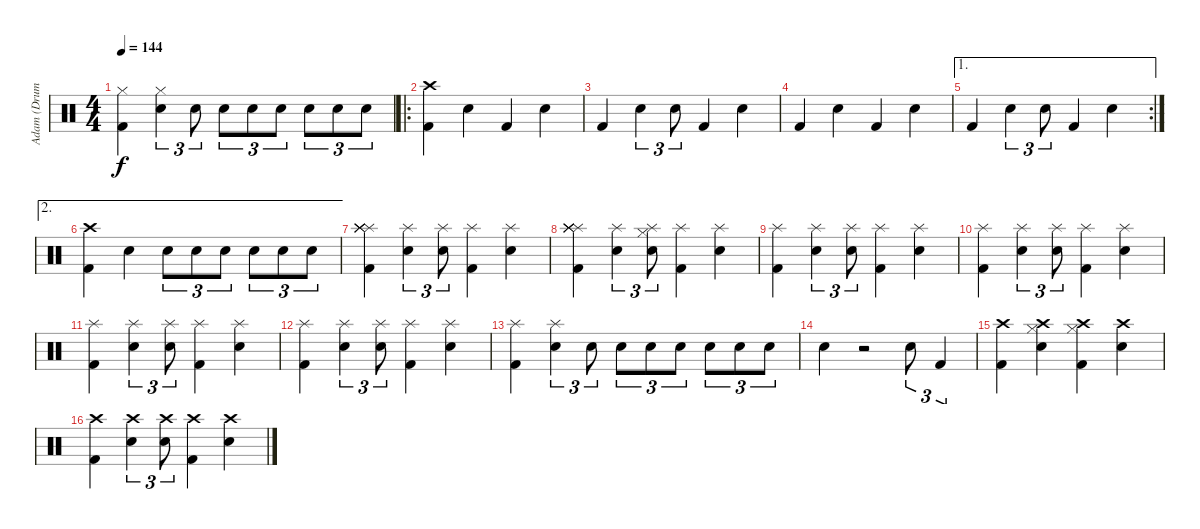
\track ("Adam (Drums)" "Adam (Drum") {instrument percussion}
\staff {score}
\articulation defaults
\ts (4 4)
\tempo 144
\clef neutral
\ks c
("Kick (hit) 2" "Hi-Hat (closed)").4{dy f} ("Electric Snare (hit)" "Hi-Hat (closed)").4{tu (3 2)} "Electric Snare (hit)".8{tu (3 2)} "Electric Snare (hit)".8{tu (3 2)} "Electric Snare (hit)".8{tu (3 2)} "Electric Snare (hit)".8{tu (3 2)} "Electric Snare (hit)".8{tu (3 2)} "Electric Snare (hit)".8{tu (3 2)} "Electric Snare (hit)".8{tu (3 2)} |
\ro
("Crash high (hit)" "Kick (hit) 2").4 "Electric Snare (hit)".4 "Kick (hit) 2".4 "Electric Snare (hit)".4 |
"Kick (hit) 2".4 "Electric Snare (hit)".4{tu (3 2)} "Electric Snare (hit)".8{tu (3 2)} "Kick (hit) 2".4 "Electric Snare (hit)".4 |
"Kick (hit) 2".4 "Electric Snare (hit)".4 "Kick (hit) 2".4 "Electric Snare (hit)".4 |
\ae 1
\rc 2 "Kick (hit) 2".4 "Electric Snare (hit)".4{tu (3 2)} "Electric Snare (hit)".8{tu (3 2)} "Kick (hit) 2".4 "Electric Snare (hit)".4
|
\ae 2
("Crash high (hit)" "Kick (hit) 2").4 "Electric Snare (hit)".4 "Electric Snare (hit)".8{tu (3 2)} "Electric Snare (hit)".8{tu (3 2)} "Electric Snare (hit)".8{tu (3 2)} "Electric Snare (hit)".8{tu (3 2)} "Electric Snare (hit)".8{tu (3 2)} "Electric Snare (hit)".8{tu (3 2)} |
("Splash (hit)" "Splash (hit)" "Kick (hit) 2" "Splash (hit)" "Splash (hit)" "Splash (hit)").4 ("Electric Snare (hit)" "Splash (hit)").4{tu (3 2)} ("Electric Snare (hit)" "Splash (hit)").8{tu (3 2)} ("Kick (hit) 2" "Splash (hit)").4 ("Electric Snare (hit)" "Splash (hit)").4 |
("Splash (hit)" "Splash (hit)" "Kick (hit) 2" "Splash (hit)" "Splash (hit)" "Splash (hit)").4 ("Splash (hit)" "Electric Snare (hit)").4{tu (3 2)} ("Hi-Hat (closed)" "Splash (hit)" "Electric Snare (hit)").8{tu (3 2)} ("Splash (hit)" "Kick (hit) 2").4 ("Splash (hit)" "Electric Snare (hit)").4 |
("Splash (hit)" "Kick (hit) 2").4 ("Splash (hit)" "Electric Snare (hit)").4{tu (3 2)} ("Splash (hit)" "Electric Snare (hit)").8{tu (3 2)} ("Splash (hit)" "Kick (hit) 2").4 ("Splash (hit)" "Electric Snare (hit)").4 |
("Splash (hit)" "Kick (hit) 2").4 ("Splash (hit)" "Electric Snare (hit)").4{tu (3 2)} ("Splash (hit)" "Electric Snare (hit)").8{tu (3 2)} ("Splash (hit)" "Kick (hit) 2").4 ("Splash (hit)" "Electric Snare (hit)").4 |
("Splash (hit)" "Kick (hit) 2").4 ("Splash (hit)" "Electric Snare (hit)").4{tu (3 2)} ("Splash (hit)" "Electric Snare (hit)").8{tu (3 2)} ("Splash (hit)" "Kick (hit) 2").4 ("Splash (hit)" "Electric Snare (hit)").4 |
("Splash (hit)" "Kick (hit) 2").4 ("Splash (hit)" "Electric Snare (hit)").4{tu (3 2)} ("Splash (hit)" "Electric Snare (hit)").8{tu (3 2)} ("Splash (hit)" "Kick (hit) 2").4 ("Splash (hit)" "Electric Snare (hit)").4 |
("Splash (hit)" "Kick (hit) 2").4 ("Splash (hit)" "Electric Snare (hit)").4{tu (3 2)} "Electric Snare (hit)".8{tu (3 2)} "Electric Snare (hit)".8{tu (3 2)} "Electric Snare (hit)".8{tu (3 2)} "Electric Snare (hit)".8{tu (3 2)} "Electric Snare (hit)".8{tu (3 2)} "Electric Snare (hit)".8{tu (3 2)} "Electric Snare (hit)".8{tu (3 2)} |
"Electric Snare (hit)".4 r.2 "Electric Snare (hit)".8{tu (3 2)} "Kick (hit) 2".4{tu (3 2)} |
("Crash high (hit)" "Kick (hit) 2").4 ("Hi-Hat (closed)" "Crash high (hit)" "Electric Snare (hit)").4 ("Hi-Hat (closed)" "Crash high (hit)" "Kick (hit) 2").4 ("Crash high (hit)" "Electric Snare (hit)").4 |
("Kick (hit) 2" "Crash high (hit)").4 ("Electric Snare (hit)" "Crash high (hit)").4{tu (3 2)} ("Electric Snare (hit)" "Crash high (hit)").8{tu (3 2)} ("Kick (hit) 2" "Crash high (hit)").4 ("Electric Snare (hit)" "Crash high (hit)").4
